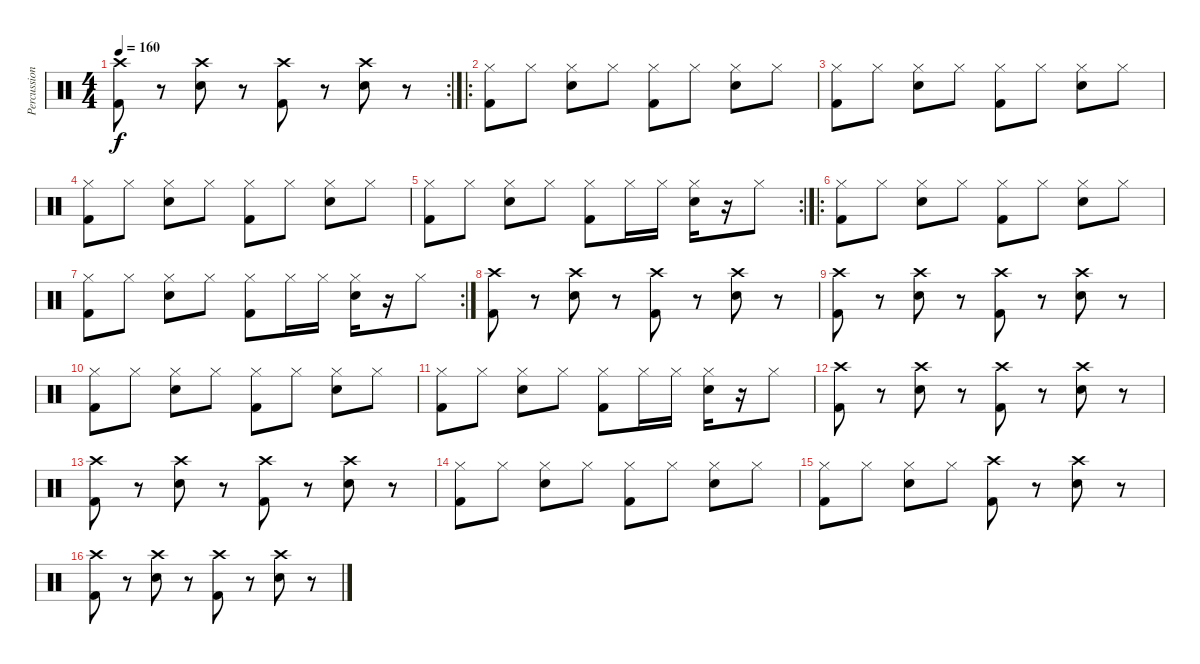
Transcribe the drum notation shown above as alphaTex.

\track ("Percussions" "Percussion") {instrument percussion}
\staff {score}
\articulation defaults
\rc 2
\ts (4 4)
\tempo 160
\clef neutral
\ks c
("Crash high (hit)" "Kick (hit) 2").8{dy f} r.8 ("Crash high (hit)" "Electric Snare (hit)").8 r.8 ("Crash high (hit)" "Kick (hit) 2").8 r.8 ("Crash high (hit)" "Electric Snare (hit)").8 r.8 |
\ro
("Hi-Hat (closed)" "Kick (hit) 2").8 "Hi-Hat (closed)".8 ("Hi-Hat (closed)" "Electric Snare (hit)").8 "Hi-Hat (closed)".8 ("Hi-Hat (closed)" "Kick (hit) 2").8 "Hi-Hat (closed)".8 ("Hi-Hat (closed)" "Electric Snare (hit)").8 "Hi-Hat (closed)".8 |
("Hi-Hat (closed)" "Kick (hit) 2").8 "Hi-Hat (closed)".8 ("Hi-Hat (closed)" "Electric Snare (hit)").8 "Hi-Hat (closed)".8 ("Hi-Hat (closed)" "Kick (hit) 2").8 "Hi-Hat (closed)".8 ("Hi-Hat (closed)" "Electric Snare (hit)").8 "Hi-Hat (closed)".8 |
("Hi-Hat (closed)" "Kick (hit) 2").8 "Hi-Hat (closed)".8 ("Hi-Hat (closed)" "Electric Snare (hit)").8 "Hi-Hat (closed)".8 ("Hi-Hat (closed)" "Kick (hit) 2").8 "Hi-Hat (closed)".8 ("Hi-Hat (closed)" "Electric Snare (hit)").8 "Hi-Hat (closed)".8 |
\rc 2
("Hi-Hat (closed)" "Kick (hit) 2").8 "Hi-Hat (closed)".8 ("Hi-Hat (closed)" "Electric Snare (hit)").8 "Hi-Hat (closed)".8 ("Hi-Hat (closed)" "Kick (hit) 2").8 "Hi-Hat (closed)".16 "Hi-Hat (closed)".16 ("Hi-Hat (closed)" "Electric Snare (hit)").16 r.16 "Hi-Hat (closed)".8 |
\ro
("Hi-Hat (closed)" "Kick (hit) 2").8 "Hi-Hat (closed)".8 ("Hi-Hat (closed)" "Electric Snare (hit)").8 "Hi-Hat (closed)".8 ("Hi-Hat (closed)" "Kick (hit) 2").8 "Hi-Hat (closed)".8 ("Hi-Hat (closed)" "Electric Snare (hit)").8 "Hi-Hat (closed)".8 |
\rc 2
("Hi-Hat (closed)" "Kick (hit) 2").8 "Hi-Hat (closed)".8 ("Hi-Hat (closed)" "Electric Snare (hit)").8 "Hi-Hat (closed)".8 ("Hi-Hat (closed)" "Kick (hit) 2").8 "Hi-Hat (closed)".16 "Hi-Hat (closed)".16 ("Hi-Hat (closed)" "Electric Snare (hit)").16 r.16 "Hi-Hat (closed)".8 |
("Crash high (hit)" "Kick (hit) 2").8 r.8 ("Crash high (hit)" "Electric Snare (hit)").8 r.8 ("Crash high (hit)" "Kick (hit) 2").8 r.8 ("Crash high (hit)" "Electric Snare (hit)").8 r.8 |
("Crash high (hit)" "Kick (hit) 2").8 r.8 ("Crash high (hit)" "Electric Snare (hit)").8 r.8 ("Crash high (hit)" "Kick (hit) 2").8 r.8 ("Crash high (hit)" "Electric Snare (hit)").8 r.8 |
("Hi-Hat (closed)" "Kick (hit) 2").8 "Hi-Hat (closed)".8 ("Hi-Hat (closed)" "Electric Snare (hit)").8 "Hi-Hat (closed)".8 ("Hi-Hat (closed)" "Kick (hit) 2").8 "Hi-Hat (closed)".8 ("Hi-Hat (closed)" "Electric Snare (hit)").8 "Hi-Hat (closed)".8 |
("Hi-Hat (closed)" "Kick (hit) 2").8 "Hi-Hat (closed)".8 ("Hi-Hat (closed)" "Electric Snare (hit)").8 "Hi-Hat (closed)".8 ("Hi-Hat (closed)" "Kick (hit) 2").8 "Hi-Hat (closed)".16 "Hi-Hat (closed)".16 ("Hi-Hat (closed)" "Electric Snare (hit)").16 r.16 "Hi-Hat (closed)".8 |
("Crash high (hit)" "Kick (hit) 2").8 r.8 ("Crash high (hit)" "Electric Snare (hit)").8 r.8 ("Crash high (hit)" "Kick (hit) 2").8 r.8 ("Crash high (hit)" "Electric Snare (hit)").8 r.8 |
("Crash high (hit)" "Kick (hit) 2").8 r.8 ("Crash high (hit)" "Electric Snare (hit)").8 r.8 ("Crash high (hit)" "Kick (hit) 2").8 r.8 ("Crash high (hit)" "Electric Snare (hit)").8 r.8 |
("Hi-Hat (closed)" "Kick (hit) 2").8 "Hi-Hat (closed)".8 ("Hi-Hat (closed)" "Electric Snare (hit)").8 "Hi-Hat (closed)".8 ("Hi-Hat (closed)" "Kick (hit) 2").8 "Hi-Hat (closed)".8 ("Hi-Hat (closed)" "Electric Snare (hit)").8 "Hi-Hat (closed)".8 |
("Hi-Hat (closed)" "Kick (hit) 2").8 "Hi-Hat (closed)".8 ("Hi-Hat (closed)" "Electric Snare (hit)").8 "Hi-Hat (closed)".8 ("Crash high (hit)" "Kick (hit) 2").8 r.8 ("Crash high (hit)" "Electric Snare (hit)").8 r.8 |
("Crash high (hit)" "Kick (hit) 2").8 r.8 ("Crash high (hit)" "Electric Snare (hit)").8 r.8 ("Crash high (hit)" "Kick (hit) 2").8 r.8 ("Crash high (hit)" "Electric Snare (hit)").8 r.8
